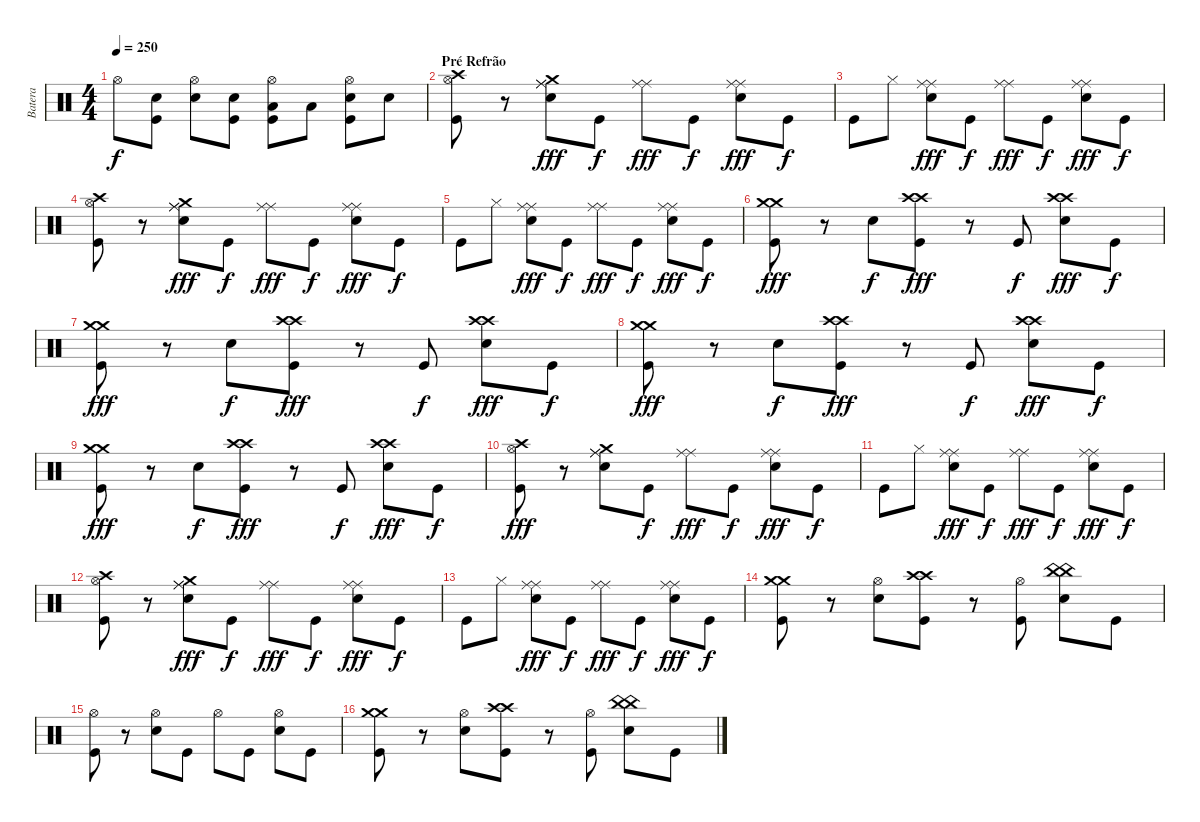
\track ("Batera" "Batera") {instrument percussion}
\staff {score}
\articulation defaults
\ts (4 4)
\tempo 250
\clef neutral
\ks c "Hi-Hat (open)".8{dy f}
("Snare (hit) 2" "Kick (hit)").8 ("Hi-Hat (open)" "Electric Snare (hit)").8 ("Electric Snare (hit)" "Kick (hit)").8 ("Hi-Hat (open)" "Low Floor Tom (hit)" "Kick (hit)").8 "Low Floor Tom (hit)".8 ("Hi-Hat (open)" "Snare (hit) 2" "Kick (hit)").8 "Snare (hit) 2".8 |
\section ("" "Pré Refrão")
("Crash high (hit)" "Hi-Hat (open)" "Kick (hit)").8 r.8 ("Crash medium (hit)" "Ride (middle)" "Ride (middle)" "Electric Snare (hit)").8{dy fff} "Kick (hit)".8{dy f} ("Ride (middle)" "Ride (middle)").8{dy fff} "Kick (hit)".8{dy f} ("Ride (middle)" "Ride (middle)" "Electric Snare (hit)").8{dy fff} "Kick (hit)".8{dy f} |
"Kick (hit)".8 "Hi-Hat (closed)".8 ("Ride (middle)" "Ride (middle)" "Electric Snare (hit)").8{dy fff} "Kick (hit)".8{dy f} ("Ride (middle)" "Ride (middle)").8{dy fff} "Kick (hit)".8{dy f} ("Ride (middle)" "Ride (middle)" "Electric Snare (hit)").8{dy fff} "Kick (hit)".8{dy f} |
("Crash high (hit)" "Hi-Hat (open)" "Kick (hit)").8 r.8 ("Crash medium (hit)" "Ride (middle)" "Ride (middle)" "Electric Snare (hit)").8{dy fff} "Kick (hit)".8{dy f} ("Ride (middle)" "Ride (middle)").8{dy fff} "Kick (hit)".8{dy f} ("Ride (middle)" "Ride (middle)" "Electric Snare (hit)").8{dy fff} "Kick (hit)".8{dy f} |
"Kick (hit)".8 "Hi-Hat (closed)".8 ("Ride (middle)" "Ride (middle)" "Electric Snare (hit)").8{dy fff} "Kick (hit)".8{dy f} ("Ride (middle)" "Ride (middle)").8{dy fff} "Kick (hit)".8{dy f} ("Ride (middle)" "Ride (middle)" "Electric Snare (hit)").8{dy fff} "Kick (hit)".8{dy f} |
("Crash medium (hit)" "Crash medium (hit)" "Kick (hit)").8{dy fff} r.8 "Electric Snare (hit)".8{dy f} ("Crash high (hit)" "Crash high (hit)" "Kick (hit)").8{dy fff} r.8 "Kick (hit)".8{dy f} ("Crash high (hit)" "Crash high (hit)" "Electric Snare (hit)").8{dy fff} "Kick (hit)".8{dy f} |
("Crash medium (hit)" "Crash medium (hit)" "Kick (hit)").8{dy fff} r.8 "Electric Snare (hit)".8{dy f} ("Crash high (hit)" "Crash high (hit)" "Kick (hit)").8{dy fff} r.8 "Kick (hit)".8{dy f} ("Crash high (hit)" "Crash high (hit)" "Electric Snare (hit)").8{dy fff} "Kick (hit)".8{dy f} |
("Crash medium (hit)" "Crash medium (hit)" "Kick (hit)").8{dy fff} r.8 "Electric Snare (hit)".8{dy f} ("Crash high (hit)" "Crash high (hit)" "Kick (hit)").8{dy fff} r.8 "Kick (hit)".8{dy f} ("Crash high (hit)" "Crash high (hit)" "Electric Snare (hit)").8{dy fff} "Kick (hit)".8{dy f} |
("Crash medium (hit)" "Crash medium (hit)" "Kick (hit)").8{dy fff} r.8 "Electric Snare (hit)".8{dy f} ("Crash high (hit)" "Crash high (hit)" "Kick (hit)").8{dy fff} r.8 "Kick (hit)".8{dy f} ("Crash high (hit)" "Crash high (hit)" "Electric Snare (hit)").8{dy fff} "Kick (hit)".8{dy f} |
("Crash high (hit)" "Hi-Hat (open)" "Kick (hit)").8{dy fff} r.8 ("Crash medium (hit)" "Ride (middle)" "Ride (middle)" "Electric Snare (hit)").8 "Kick (hit)".8{dy f} ("Ride (middle)" "Ride (middle)").8{dy fff} "Kick (hit)".8{dy f} ("Ride (middle)" "Ride (middle)" "Electric Snare (hit)").8{dy fff} "Kick (hit)".8{dy f} |
"Kick (hit)".8 "Hi-Hat (closed)".8 ("Ride (middle)" "Ride (middle)" "Electric Snare (hit)").8{dy fff} "Kick (hit)".8{dy f} ("Ride (middle)" "Ride (middle)").8{dy fff} "Kick (hit)".8{dy f} ("Ride (middle)" "Ride (middle)" "Electric Snare (hit)").8{dy fff} "Kick (hit)".8{dy f} |
("Crash high (hit)" "Hi-Hat (open)" "Kick (hit)").8 r.8 ("Crash medium (hit)" "Ride (middle)" "Ride (middle)" "Electric Snare (hit)").8{dy fff} "Kick (hit)".8{dy f} ("Ride (middle)" "Ride (middle)").8{dy fff} "Kick (hit)".8{dy f} ("Ride (middle)" "Ride (middle)" "Electric Snare (hit)").8{dy fff} "Kick (hit)".8{dy f} |
"Kick (hit)".8 "Hi-Hat (closed)".8 ("Ride (middle)" "Ride (middle)" "Electric Snare (hit)").8{dy fff} "Kick (hit)".8{dy f} ("Ride (middle)" "Ride (middle)").8{dy fff} "Kick (hit)".8{dy f} ("Ride (middle)" "Ride (middle)" "Electric Snare (hit)").8{dy fff} "Kick (hit)".8{dy f} |
("Crash medium (hit)" "Crash medium (hit)" "Kick (hit)").8 r.8 ("Hi-Hat (open)" "Electric Snare (hit)").8 ("Crash high (hit)" "Crash high (hit)" "Kick (hit)").8 r.8 ("Hi-Hat (open)" "Kick (hit)").8 ("China (hit)" "China (hit)" "Electric Snare (hit)").8 "Kick (hit)".8 |
("Hi-Hat (open)" "Kick (hit)").8 r.8 ("Hi-Hat (open)" "Electric Snare (hit)").8 "Kick (hit)".8 "Hi-Hat (open)".8 "Kick (hit)".8 ("Hi-Hat (open)" "Electric Snare (hit)").8 "Kick (hit)".8 |
("Crash medium (hit)" "Crash medium (hit)" "Kick (hit)").8 r.8 ("Hi-Hat (open)" "Electric Snare (hit)").8 ("Crash high (hit)" "Crash high (hit)" "Kick (hit)").8 r.8 ("Hi-Hat (open)" "Kick (hit)").8 ("China (hit)" "China (hit)" "Electric Snare (hit)").8 "Kick (hit)".8
